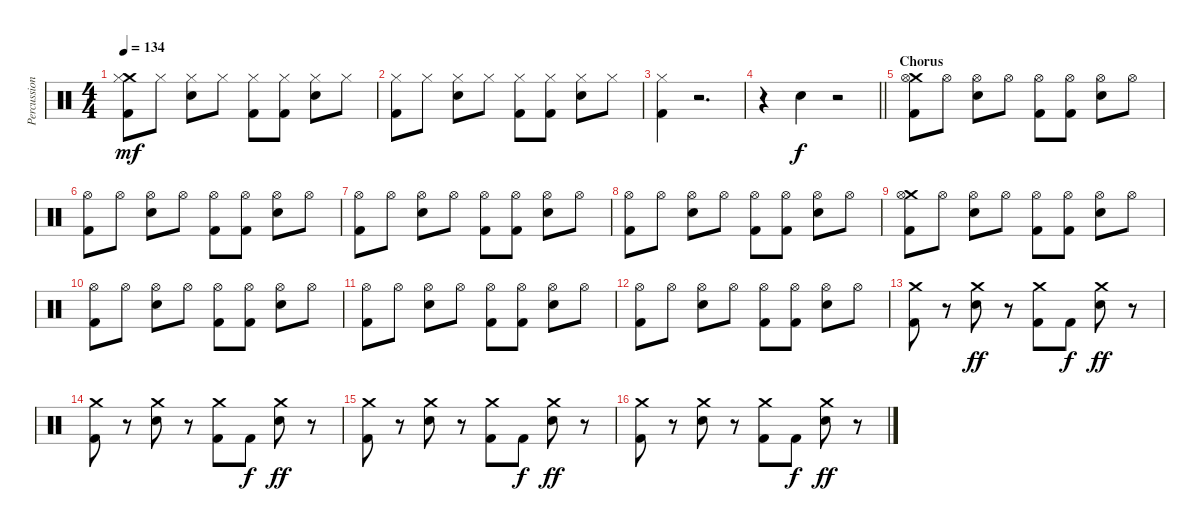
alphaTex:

\track ("Percussion" "Percussion") {instrument percussion}
\staff {score}
\articulation defaults
\ts (4 4)
\tempo 134
\clef neutral
\ks c
("Crash medium (hit)" "Hi-Hat (closed)" "Kick (hit) 2").8{dy mf} "Hi-Hat (closed)".8 ("Hi-Hat (closed)" "Snare (hit) 2").8 "Hi-Hat (closed)".8 ("Hi-Hat (closed)" "Kick (hit) 2").8 ("Hi-Hat (closed)" "Kick (hit) 2").8 ("Hi-Hat (closed)" "Snare (hit) 2").8 "Hi-Hat (closed)".8 |
("Hi-Hat (closed)" "Kick (hit) 2").8 "Hi-Hat (closed)".8 ("Hi-Hat (closed)" "Snare (hit) 2").8 "Hi-Hat (closed)".8 ("Hi-Hat (closed)" "Kick (hit) 2").8 ("Hi-Hat (closed)" "Kick (hit) 2").8 ("Hi-Hat (closed)" "Snare (hit) 2").8 "Hi-Hat (closed)".8 |
("Hi-Hat (closed)" "Kick (hit) 2").4 r.2{d} |
\barLineRight lightlight
r.4 "Snare (hit) 2".4{dy f} r.2 |
\section ("" "Chorus")
("Crash medium (hit)" "Hi-Hat (open)" "Kick (hit) 2").8 "Hi-Hat (open)".8 ("Hi-Hat (open)" "Snare (hit) 2").8 "Hi-Hat (open)".8 ("Hi-Hat (open)" "Kick (hit) 2").8 ("Hi-Hat (open)" "Kick (hit) 2").8 ("Hi-Hat (open)" "Snare (hit) 2").8 "Hi-Hat (open)".8 |
("Hi-Hat (open)" "Kick (hit) 2").8 "Hi-Hat (open)".8 ("Hi-Hat (open)" "Snare (hit) 2").8 "Hi-Hat (open)".8 ("Hi-Hat (open)" "Kick (hit) 2").8 ("Hi-Hat (open)" "Kick (hit) 2").8 ("Hi-Hat (open)" "Snare (hit) 2").8 "Hi-Hat (open)".8 |
("Hi-Hat (open)" "Kick (hit) 2").8 "Hi-Hat (open)".8 ("Hi-Hat (open)" "Snare (hit) 2").8 "Hi-Hat (open)".8 ("Hi-Hat (open)" "Kick (hit) 2").8 ("Hi-Hat (open)" "Kick (hit) 2").8 ("Hi-Hat (open)" "Snare (hit) 2").8 "Hi-Hat (open)".8 |
("Hi-Hat (open)" "Kick (hit) 2").8 "Hi-Hat (open)".8 ("Hi-Hat (open)" "Snare (hit) 2").8 "Hi-Hat (open)".8 ("Hi-Hat (open)" "Kick (hit) 2").8 ("Hi-Hat (open)" "Kick (hit) 2").8 ("Hi-Hat (open)" "Snare (hit) 2").8 "Hi-Hat (open)".8 |
("Crash medium (hit)" "Hi-Hat (open)" "Kick (hit) 2").8 "Hi-Hat (open)".8 ("Hi-Hat (open)" "Snare (hit) 2").8 "Hi-Hat (open)".8 ("Hi-Hat (open)" "Kick (hit) 2").8 ("Hi-Hat (open)" "Kick (hit) 2").8 ("Hi-Hat (open)" "Snare (hit) 2").8 "Hi-Hat (open)".8 |
("Hi-Hat (open)" "Kick (hit) 2").8 "Hi-Hat (open)".8 ("Hi-Hat (open)" "Snare (hit) 2").8 "Hi-Hat (open)".8 ("Hi-Hat (open)" "Kick (hit) 2").8 ("Hi-Hat (open)" "Kick (hit) 2").8 ("Hi-Hat (open)" "Snare (hit) 2").8 "Hi-Hat (open)".8 |
("Hi-Hat (open)" "Kick (hit) 2").8 "Hi-Hat (open)".8 ("Hi-Hat (open)" "Snare (hit) 2").8 "Hi-Hat (open)".8 ("Hi-Hat (open)" "Kick (hit) 2").8 ("Hi-Hat (open)" "Kick (hit) 2").8 ("Hi-Hat (open)" "Snare (hit) 2").8 "Hi-Hat (open)".8 |
("Hi-Hat (open)" "Kick (hit) 2").8 "Hi-Hat (open)".8 ("Hi-Hat (open)" "Snare (hit) 2").8 "Hi-Hat (open)".8 ("Hi-Hat (open)" "Kick (hit) 2").8 ("Hi-Hat (open)" "Kick (hit) 2").8 ("Hi-Hat (open)" "Snare (hit) 2").8 "Hi-Hat (open)".8 |
("Crash medium (hit)" "Kick (hit) 2").8 r.8 ("Crash medium (hit)" "Snare (hit) 2").8{dy ff} r.8 ("Crash medium (hit)" "Kick (hit) 2").8 "Kick (hit) 2".8{dy f} ("Crash medium (hit)" "Snare (hit) 2").8{dy ff} r.8 |
("Crash medium (hit)" "Kick (hit) 2").8 r.8 ("Crash medium (hit)" "Snare (hit) 2").8 r.8 ("Crash medium (hit)" "Kick (hit) 2").8 "Kick (hit) 2".8{dy f} ("Crash medium (hit)" "Snare (hit) 2").8{dy ff} r.8 |
("Crash medium (hit)" "Kick (hit) 2").8 r.8 ("Crash medium (hit)" "Snare (hit) 2").8 r.8 ("Crash medium (hit)" "Kick (hit) 2").8 "Kick (hit) 2".8{dy f} ("Crash medium (hit)" "Snare (hit) 2").8{dy ff} r.8 |
("Crash medium (hit)" "Kick (hit) 2").8 r.8 ("Crash medium (hit)" "Snare (hit) 2").8 r.8 ("Crash medium (hit)" "Kick (hit) 2").8 "Kick (hit) 2".8{dy f} ("Crash medium (hit)" "Snare (hit) 2").8{dy ff} r.8
